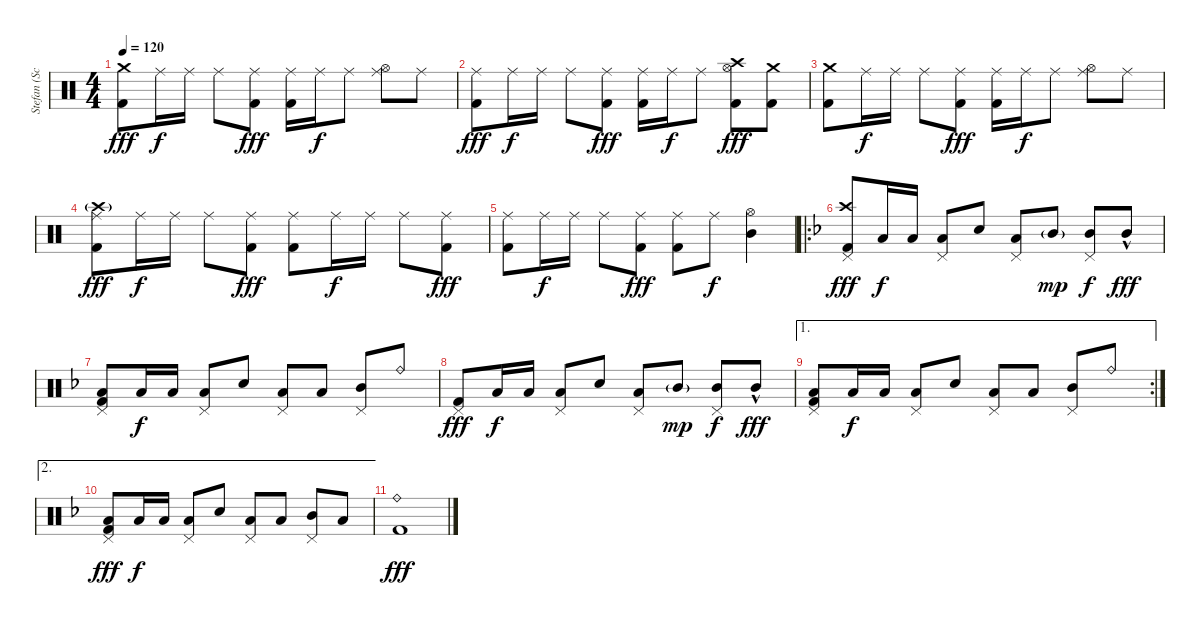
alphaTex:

\track ("Stefan (Schlagzeug)" "Stefan (Sc") {instrument percussion}
\staff {score}
\articulation defaults
\ts (4 4)
\tempo 120
\clef neutral
\ks c
("Crash medium (hit)" "Kick (hit) 2").8{dy fff} "Ride (middle)".16{dy f} "Ride (middle)".16 "Ride (middle)".8 ("Ride (middle)" "Kick (hit) 2").8{dy fff} ("Ride (middle)" "Kick (hit) 2").16 "Ride (middle)".16{dy f} "Ride (middle)".8 ("Ride (middle)" "Hi-Hat (open)").8 "Ride (middle)".8 |
("Ride (middle)" "Kick (hit) 2").8{dy fff} "Ride (middle)".16{dy f} "Ride (middle)".16 "Ride (middle)".8 ("Ride (middle)" "Kick (hit) 2").8{dy fff} ("Ride (middle)" "Kick (hit) 2").16 "Ride (middle)".16{dy f} "Ride (middle)".8 ("Crash high (hit)" "Hi-Hat (open)" "Kick (hit) 2").8{dy fff} ("Crash medium (hit)" "Kick (hit) 2").8 |
("Crash medium (hit)" "Kick (hit) 2").8 "Ride (middle)".16{dy f} "Ride (middle)".16 "Ride (middle)".8 ("Ride (middle)" "Kick (hit) 2").8{dy fff} ("Ride (middle)" "Kick (hit) 2").16 "Ride (middle)".16{dy f} "Ride (middle)".8 ("Ride (middle)" "Hi-Hat (open)").8 "Ride (middle)".8 |
("Ride (middle)" "Crash high (hit)"{g} "Kick (hit) 2").8{dy fff} "Ride (middle)".16{dy f} "Ride (middle)".16 "Ride (middle)".8 ("Ride (middle)" "Kick (hit) 2").8{dy fff} ("Ride (middle)" "Kick (hit) 2").8 "Ride (middle)".16{dy f} "Ride (middle)".16 "Ride (middle)".8 ("Ride (middle)" "Kick (hit) 2").8{dy fff} |
("Ride (middle)" "Kick (hit) 2").8 "Ride (middle)".16{dy f} "Ride (middle)".16 "Ride (middle)".8 ("Ride (middle)" "Kick (hit) 2").8{dy fff} ("Ride (middle)" "Kick (hit) 2").8 "Ride (middle)".8{dy f} ("Hi-Hat (open)" "Mid Tom (hit)").4 |
\ro
\ks f
("Crash high (hit)" "Kick (hit) 2" "Pedal Hi-Hat (hit)").8{dy fff} "Low Tom (hit)".16{dy f} "Low Tom (hit)".16 ("Low Tom (hit)" "Pedal Hi-Hat (hit)").8 "Snare (hit) 2".8 ("Low Tom (hit)" "Pedal Hi-Hat (hit)").8 "Mid Tom (hit)"{g}.8{dy mp} ("Mid Tom (hit)" "Pedal Hi-Hat (hit)").8{dy f} "Mid Tom (hit)"{hac}.8{dy fff} |
("Low Tom (hit)" "Kick (hit) 2" "Pedal Hi-Hat (hit)").8 "Low Tom (hit)".16{dy f} "Low Tom (hit)".16 ("Low Tom (hit)" "Pedal Hi-Hat (hit)").8 "Snare (hit) 2".8 ("Low Tom (hit)" "Pedal Hi-Hat (hit)").8 "Low Tom (hit)".8 ("Mid Tom (hit)" "Pedal Hi-Hat (hit)").8 "Ride (bell)".8 |
("Kick (hit) 2" "Pedal Hi-Hat (hit)").8{dy fff} "Low Tom (hit)".16{dy f} "Low Tom (hit)".16 ("Low Tom (hit)" "Pedal Hi-Hat (hit)").8 "Snare (hit) 2".8 ("Low Tom (hit)" "Pedal Hi-Hat (hit)").8 "Mid Tom (hit)"{g}.8{dy mp} ("Mid Tom (hit)" "Pedal Hi-Hat (hit)").8{dy f} "Mid Tom (hit)"{hac}.8{dy fff} |
\ae 1
\rc 2
("Low Tom (hit)" "Kick (hit) 2" "Pedal Hi-Hat (hit)").8 "Low Tom (hit)".16{dy f} "Low Tom (hit)".16 ("Low Tom (hit)" "Pedal Hi-Hat (hit)").8 "Snare (hit) 2".8 ("Low Tom (hit)" "Pedal Hi-Hat (hit)").8 "Low Tom (hit)".8 ("Mid Tom (hit)" "Pedal Hi-Hat (hit)").8 "Ride (bell)".8 |
\ae 2
("Low Tom (hit)" "Kick (hit) 2" "Pedal Hi-Hat (hit)").8{dy fff} "Low Tom (hit)".16{dy f} "Low Tom (hit)".16 ("Low Tom (hit)" "Pedal Hi-Hat (hit)").8 "Snare (hit) 2".8 ("Low Tom (hit)" "Pedal Hi-Hat (hit)").8 "Low Tom (hit)".8 ("Mid Tom (hit)" "Pedal Hi-Hat (hit)").8 "Low Tom (hit)".8 |
("Ride (bell)" "Kick (hit) 2").1{dy fff}
